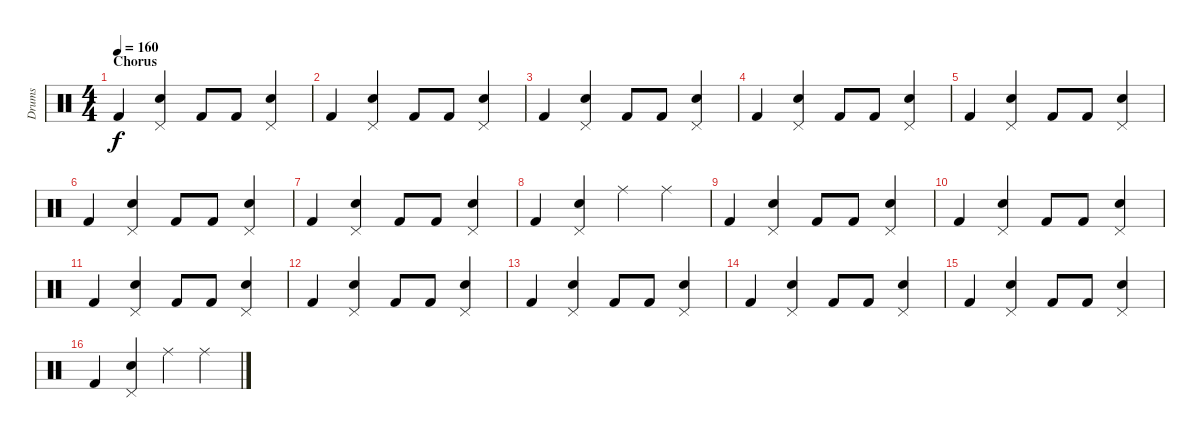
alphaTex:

\track ("Drums" "Drums") {instrument percussion}
\staff {score}
\articulation defaults
\ts (4 4)
\section ("" "Chorus")
\tempo 160
\clef neutral
\ks c "Kick (hit) 2".4{dy f}
("Pedal Hi-Hat (hit)" "Electric Snare (hit)").4 "Kick (hit) 2".8 "Kick (hit) 2".8 ("Pedal Hi-Hat (hit)" "Electric Snare (hit)").4 |
"Kick (hit) 2".4 ("Pedal Hi-Hat (hit)" "Electric Snare (hit)").4 "Kick (hit) 2".8 "Kick (hit) 2".8 ("Pedal Hi-Hat (hit)" "Electric Snare (hit)").4 |
"Kick (hit) 2".4 ("Pedal Hi-Hat (hit)" "Electric Snare (hit)").4 "Kick (hit) 2".8 "Kick (hit) 2".8 ("Pedal Hi-Hat (hit)" "Electric Snare (hit)").4 |
"Kick (hit) 2".4 ("Pedal Hi-Hat (hit)" "Electric Snare (hit)").4 "Kick (hit) 2".8 "Kick (hit) 2".8 ("Pedal Hi-Hat (hit)" "Electric Snare (hit)").4 |
"Kick (hit) 2".4 ("Pedal Hi-Hat (hit)" "Electric Snare (hit)").4 "Kick (hit) 2".8 "Kick (hit) 2".8 ("Pedal Hi-Hat (hit)" "Electric Snare (hit)").4 |
"Kick (hit) 2".4 ("Pedal Hi-Hat (hit)" "Electric Snare (hit)").4 "Kick (hit) 2".8 "Kick (hit) 2".8 ("Pedal Hi-Hat (hit)" "Electric Snare (hit)").4 |
"Kick (hit) 2".4 ("Pedal Hi-Hat (hit)" "Electric Snare (hit)").4 "Kick (hit) 2".8 "Kick (hit) 2".8 ("Pedal Hi-Hat (hit)" "Electric Snare (hit)").4 |
"Kick (hit) 2".4 ("Pedal Hi-Hat (hit)" "Electric Snare (hit)").4 "Ride (middle)".4 "Ride (middle)".4 |
"Kick (hit) 2".4 ("Pedal Hi-Hat (hit)" "Electric Snare (hit)").4 "Kick (hit) 2".8 "Kick (hit) 2".8 ("Pedal Hi-Hat (hit)" "Electric Snare (hit)").4 |
"Kick (hit) 2".4 ("Pedal Hi-Hat (hit)" "Electric Snare (hit)").4 "Kick (hit) 2".8 "Kick (hit) 2".8 ("Pedal Hi-Hat (hit)" "Electric Snare (hit)").4 |
"Kick (hit) 2".4 ("Pedal Hi-Hat (hit)" "Electric Snare (hit)").4 "Kick (hit) 2".8 "Kick (hit) 2".8 ("Pedal Hi-Hat (hit)" "Electric Snare (hit)").4 |
"Kick (hit) 2".4 ("Pedal Hi-Hat (hit)" "Electric Snare (hit)").4 "Kick (hit) 2".8 "Kick (hit) 2".8 ("Pedal Hi-Hat (hit)" "Electric Snare (hit)").4 |
"Kick (hit) 2".4 ("Pedal Hi-Hat (hit)" "Electric Snare (hit)").4 "Kick (hit) 2".8 "Kick (hit) 2".8 ("Pedal Hi-Hat (hit)" "Electric Snare (hit)").4 |
"Kick (hit) 2".4 ("Pedal Hi-Hat (hit)" "Electric Snare (hit)").4 "Kick (hit) 2".8 "Kick (hit) 2".8 ("Pedal Hi-Hat (hit)" "Electric Snare (hit)").4 |
"Kick (hit) 2".4 ("Pedal Hi-Hat (hit)" "Electric Snare (hit)").4 "Kick (hit) 2".8 "Kick (hit) 2".8 ("Pedal Hi-Hat (hit)" "Electric Snare (hit)").4 |
"Kick (hit) 2".4 ("Pedal Hi-Hat (hit)" "Electric Snare (hit)").4 "Ride (middle)".4 "Ride (middle)".4
